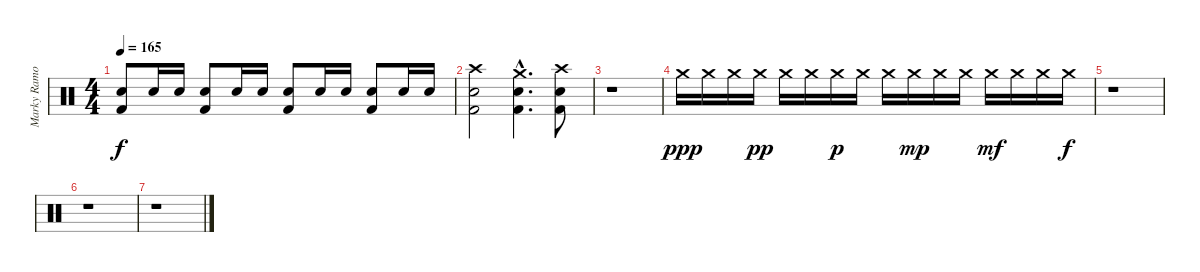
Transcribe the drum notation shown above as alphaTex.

\track ("Marky Ramone, o Próprio" "Marky Ramo") {instrument percussion}
\staff {score}
\articulation defaults
\ts (4 4)
\tempo 165
\clef neutral
\ks c
("Electric Snare (hit)" "Kick (hit) 2").8{dy f} "Electric Snare (hit)".16 "Electric Snare (hit)".16 ("Electric Snare (hit)" "Kick (hit) 2").8 "Electric Snare (hit)".16 "Electric Snare (hit)".16 ("Electric Snare (hit)" "Kick (hit) 2").8 "Electric Snare (hit)".16 "Electric Snare (hit)".16 ("Electric Snare (hit)" "Kick (hit) 2").8 "Electric Snare (hit)".16 "Electric Snare (hit)".16 |
("Crash high (hit)" "Electric Snare (hit)" "Kick (hit) 2").2 ("Crash medium (hit)"{hac} "Electric Snare (hit)"{hac} "Kick (hit) 2"{hac}).4{d} ("Crash high (hit)" "Electric Snare (hit)" "Kick (hit) 2").8 |
r.1 |
"Crash medium (hit)".16{dy ppp} "Crash medium (hit)".16 "Crash medium (hit)".16 "Crash medium (hit)".16{dy pp} "Crash medium (hit)".16 "Crash medium (hit)".16 "Crash medium (hit)".16{dy p} "Crash medium (hit)".16 "Crash medium (hit)".16 "Crash medium (hit)".16{dy mp} "Crash medium (hit)".16 "Crash medium (hit)".16 "Crash medium (hit)".16{dy mf} "Crash medium (hit)".16 "Crash medium (hit)".16 "Crash medium (hit)".16{dy f} |
r.1 |
r.1 |
r.1
